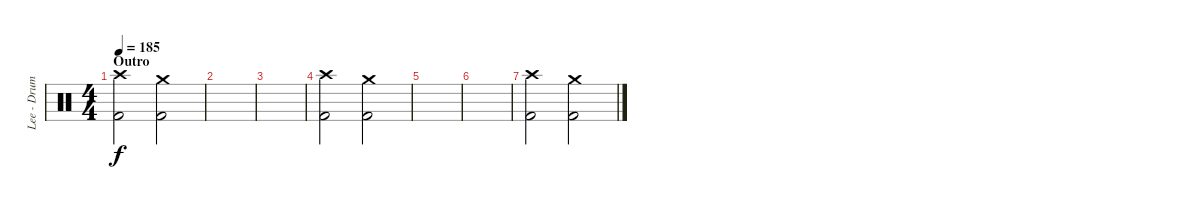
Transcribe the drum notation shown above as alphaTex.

\track ("Lee - Drums" "Lee - Drum") {instrument percussion}
\staff {score}
\articulation defaults
\ts (4 4)
\section ("" "Outro")
\tempo 185
\clef neutral
\ks c
("Crash high (hit)" "Kick (hit) 2").2{dy f} ("Crash medium (hit)" "Kick (hit) 2").2 |
|
|
("Crash high (hit)" "Kick (hit) 2").2 ("Crash medium (hit)" "Kick (hit) 2").2 |
|
|
("Crash high (hit)" "Kick (hit) 2").2 ("Crash medium (hit)" "Kick (hit) 2").2
